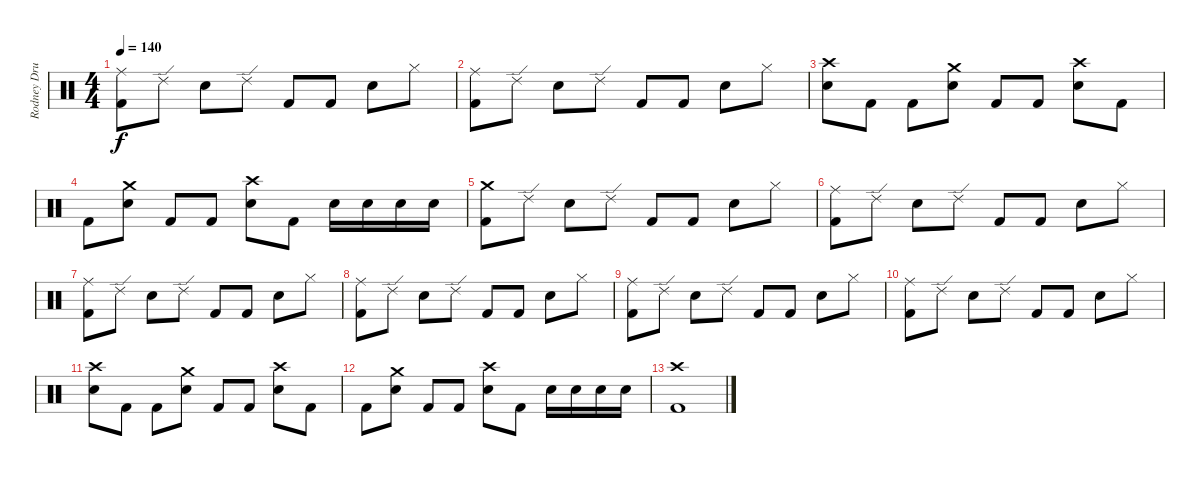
\track ("Rodney Drums" "Rodney Dru") {instrument percussion}
\staff {score}
\articulation defaults
\ts (4 4)
\tempo 140
\clef neutral
\ks c
("Ride (middle)" "Kick (hit) 2").8{dy f} "Ride (edge) 2".8 "Electric Snare (hit)".8 "Ride (edge) 2".8 "Kick (hit) 2".8 "Kick (hit) 2".8 "Electric Snare (hit)".8 "Hi-Hat (closed)".8 |
("Ride (middle)" "Kick (hit) 2").8 "Ride (edge) 2".8 "Electric Snare (hit)".8 "Ride (edge) 2".8 "Kick (hit) 2".8 "Kick (hit) 2".8 "Electric Snare (hit)".8 "Hi-Hat (closed)".8 |
("Crash high (hit)" "Electric Snare (hit)").8 "Kick (hit) 2".8 "Kick (hit) 2".8 ("Crash medium (hit)" "Electric Snare (hit)").8 "Kick (hit) 2".8 "Kick (hit) 2".8 ("Crash high (hit)" "Electric Snare (hit)").8 "Kick (hit) 2".8 |
"Kick (hit) 2".8 ("Crash medium (hit)" "Electric Snare (hit)").8 "Kick (hit) 2".8 "Kick (hit) 2".8 ("Crash high (hit)" "Electric Snare (hit)").8 "Kick (hit) 2".8 "Electric Snare (hit)".16 "Electric Snare (hit)".16 "Electric Snare (hit)".16 "Electric Snare (hit)".16 |
("Crash medium (hit)" "Kick (hit) 2").8 "Ride (edge) 2".8 "Electric Snare (hit)".8 "Ride (edge) 2".8 "Kick (hit) 2".8 "Kick (hit) 2".8 "Electric Snare (hit)".8 "Hi-Hat (closed)".8 |
("Ride (middle)" "Kick (hit) 2").8 "Ride (edge) 2".8 "Electric Snare (hit)".8 "Ride (edge) 2".8 "Kick (hit) 2".8 "Kick (hit) 2".8 "Electric Snare (hit)".8 "Hi-Hat (closed)".8 |
("Ride (middle)" "Kick (hit) 2").8 "Ride (edge) 2".8 "Electric Snare (hit)".8 "Ride (edge) 2".8 "Kick (hit) 2".8 "Kick (hit) 2".8 "Electric Snare (hit)".8 "Hi-Hat (closed)".8 |
("Ride (middle)" "Kick (hit) 2").8 "Ride (edge) 2".8 "Electric Snare (hit)".8 "Ride (edge) 2".8 "Kick (hit) 2".8 "Kick (hit) 2".8 "Electric Snare (hit)".8 "Hi-Hat (closed)".8 |
("Ride (middle)" "Kick (hit) 2").8 "Ride (edge) 2".8 "Electric Snare (hit)".8 "Ride (edge) 2".8 "Kick (hit) 2".8 "Kick (hit) 2".8 "Electric Snare (hit)".8 "Hi-Hat (closed)".8 |
("Ride (middle)" "Kick (hit) 2").8 "Ride (edge) 2".8 "Electric Snare (hit)".8 "Ride (edge) 2".8 "Kick (hit) 2".8 "Kick (hit) 2".8 "Electric Snare (hit)".8 "Hi-Hat (closed)".8 |
("Crash high (hit)" "Electric Snare (hit)").8 "Kick (hit) 2".8 "Kick (hit) 2".8 ("Crash medium (hit)" "Electric Snare (hit)").8 "Kick (hit) 2".8 "Kick (hit) 2".8 ("Crash high (hit)" "Electric Snare (hit)").8 "Kick (hit) 2".8 |
"Kick (hit) 2".8 ("Crash medium (hit)" "Electric Snare (hit)").8 "Kick (hit) 2".8 "Kick (hit) 2".8 ("Crash high (hit)" "Electric Snare (hit)").8 "Kick (hit) 2".8 "Electric Snare (hit)".16 "Electric Snare (hit)".16 "Electric Snare (hit)".16 "Electric Snare (hit)".16 |
("Crash high (hit)" "Kick (hit) 2").1
